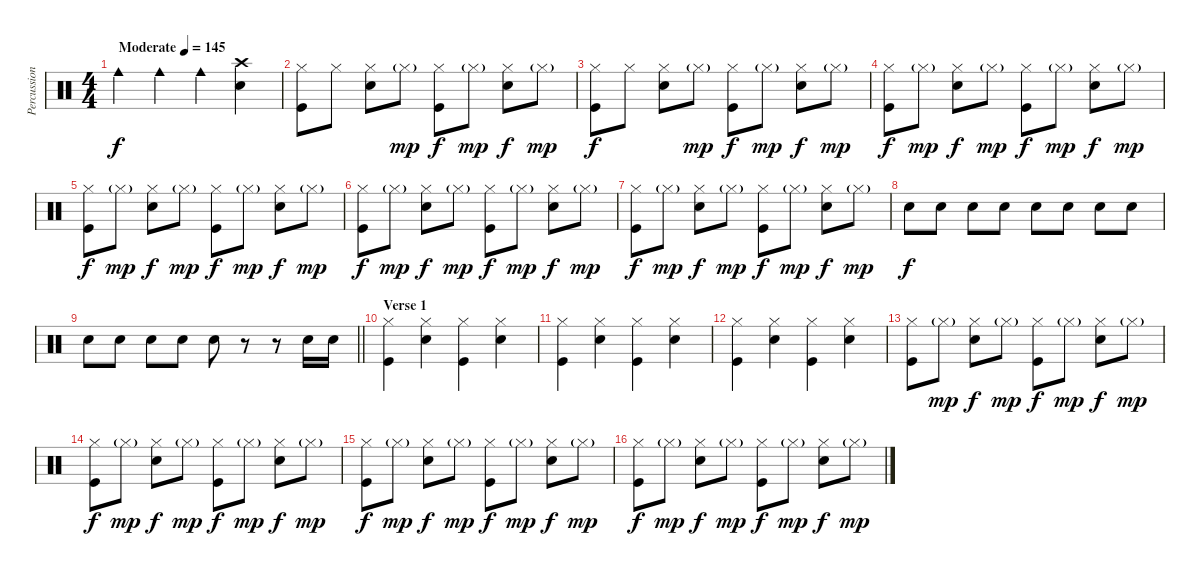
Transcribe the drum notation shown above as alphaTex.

\track ("Percussion" "Percussion") {instrument percussion}
\staff {score}
\articulation defaults
\ts (4 4)
\tempo (145 "Moderate")
\clef neutral
\ks c "Cowbell medium (hit)".4{dy f} "Cowbell medium (hit)".4 "Cowbell medium (hit)".4
("Crash high (hit)" "Snare (hit) 2").4 |
("Hi-Hat (closed)" "Kick (hit)").8 "Hi-Hat (closed)".8 ("Hi-Hat (closed)" "Snare (hit) 2").8 "Hi-Hat (closed)"{g}.8{dy mp} ("Hi-Hat (closed)" "Kick (hit)").8{dy f} "Hi-Hat (closed)"{g}.8{dy mp} ("Hi-Hat (closed)" "Snare (hit) 2").8{dy f} "Hi-Hat (closed)"{g}.8{dy mp} |
("Hi-Hat (closed)" "Kick (hit)").8{dy f} "Hi-Hat (closed)".8 ("Hi-Hat (closed)" "Snare (hit) 2").8 "Hi-Hat (closed)"{g}.8{dy mp} ("Hi-Hat (closed)" "Kick (hit)").8{dy f} "Hi-Hat (closed)"{g}.8{dy mp} ("Hi-Hat (closed)" "Snare (hit) 2").8{dy f} "Hi-Hat (closed)"{g}.8{dy mp} |
("Hi-Hat (closed)" "Kick (hit)").8{dy f} "Hi-Hat (closed)"{g}.8{dy mp} ("Hi-Hat (closed)" "Snare (hit) 2").8{dy f} "Hi-Hat (closed)"{g}.8{dy mp} ("Hi-Hat (closed)" "Kick (hit)").8{dy f} "Hi-Hat (closed)"{g}.8{dy mp} ("Hi-Hat (closed)" "Snare (hit) 2").8{dy f} "Hi-Hat (closed)"{g}.8{dy mp} |
("Hi-Hat (closed)" "Kick (hit)").8{dy f} "Hi-Hat (closed)"{g}.8{dy mp} ("Hi-Hat (closed)" "Snare (hit) 2").8{dy f} "Hi-Hat (closed)"{g}.8{dy mp} ("Hi-Hat (closed)" "Kick (hit)").8{dy f} "Hi-Hat (closed)"{g}.8{dy mp} ("Hi-Hat (closed)" "Snare (hit) 2").8{dy f} "Hi-Hat (closed)"{g}.8{dy mp} |
("Hi-Hat (closed)" "Kick (hit)").8{dy f} "Hi-Hat (closed)"{g}.8{dy mp} ("Hi-Hat (closed)" "Snare (hit) 2").8{dy f} "Hi-Hat (closed)"{g}.8{dy mp} ("Hi-Hat (closed)" "Kick (hit)").8{dy f} "Hi-Hat (closed)"{g}.8{dy mp} ("Hi-Hat (closed)" "Snare (hit) 2").8{dy f} "Hi-Hat (closed)"{g}.8{dy mp} |
("Hi-Hat (closed)" "Kick (hit)").8{dy f} "Hi-Hat (closed)"{g}.8{dy mp} ("Hi-Hat (closed)" "Snare (hit) 2").8{dy f} "Hi-Hat (closed)"{g}.8{dy mp} ("Hi-Hat (closed)" "Kick (hit)").8{dy f} "Hi-Hat (closed)"{g}.8{dy mp} ("Hi-Hat (closed)" "Snare (hit) 2").8{dy f} "Hi-Hat (closed)"{g}.8{dy mp} |
"Snare (hit) 2".8{dy f} "Snare (hit) 2".8 "Snare (hit) 2".8 "Snare (hit) 2".8 "Snare (hit) 2".8 "Snare (hit) 2".8 "Snare (hit) 2".8 "Snare (hit) 2".8 |
\barLineRight lightlight "Snare (hit) 2".8 "Snare (hit) 2".8 "Snare (hit) 2".8 "Snare (hit) 2".8 "Snare (hit) 2".8
r.8 r.8 "Snare (hit) 2".16 "Snare (hit) 2".16 |
\section ("" "Verse 1")
("Hi-Hat (closed)" "Kick (hit)").4 ("Hi-Hat (closed)" "Snare (hit) 2").4 ("Hi-Hat (closed)" "Kick (hit)").4 ("Hi-Hat (closed)" "Snare (hit) 2").4 |
("Hi-Hat (closed)" "Kick (hit)").4 ("Hi-Hat (closed)" "Snare (hit) 2").4 ("Hi-Hat (closed)" "Kick (hit)").4 ("Hi-Hat (closed)" "Snare (hit) 2").4 |
("Hi-Hat (closed)" "Kick (hit)").4 ("Hi-Hat (closed)" "Snare (hit) 2").4 ("Hi-Hat (closed)" "Kick (hit)").4 ("Hi-Hat (closed)" "Snare (hit) 2").4 |
("Hi-Hat (closed)" "Kick (hit)").8 "Hi-Hat (closed)"{g}.8{dy mp} ("Hi-Hat (closed)" "Snare (hit) 2").8{dy f} "Hi-Hat (closed)"{g}.8{dy mp} ("Hi-Hat (closed)" "Kick (hit)").8{dy f} "Hi-Hat (closed)"{g}.8{dy mp} ("Hi-Hat (closed)" "Snare (hit) 2").8{dy f} "Hi-Hat (closed)"{g}.8{dy mp} |
("Hi-Hat (closed)" "Kick (hit)").8{dy f} "Hi-Hat (closed)"{g}.8{dy mp} ("Hi-Hat (closed)" "Snare (hit) 2").8{dy f} "Hi-Hat (closed)"{g}.8{dy mp} ("Hi-Hat (closed)" "Kick (hit)").8{dy f} "Hi-Hat (closed)"{g}.8{dy mp} ("Hi-Hat (closed)" "Snare (hit) 2").8{dy f} "Hi-Hat (closed)"{g}.8{dy mp} |
("Hi-Hat (closed)" "Kick (hit)").8{dy f} "Hi-Hat (closed)"{g}.8{dy mp} ("Hi-Hat (closed)" "Snare (hit) 2").8{dy f} "Hi-Hat (closed)"{g}.8{dy mp} ("Hi-Hat (closed)" "Kick (hit)").8{dy f} "Hi-Hat (closed)"{g}.8{dy mp} ("Hi-Hat (closed)" "Snare (hit) 2").8{dy f} "Hi-Hat (closed)"{g}.8{dy mp} |
("Hi-Hat (closed)" "Kick (hit)").8{dy f} "Hi-Hat (closed)"{g}.8{dy mp} ("Hi-Hat (closed)" "Snare (hit) 2").8{dy f} "Hi-Hat (closed)"{g}.8{dy mp} ("Hi-Hat (closed)" "Kick (hit)").8{dy f} "Hi-Hat (closed)"{g}.8{dy mp} ("Hi-Hat (closed)" "Snare (hit) 2").8{dy f} "Hi-Hat (closed)"{g}.8{dy mp}
